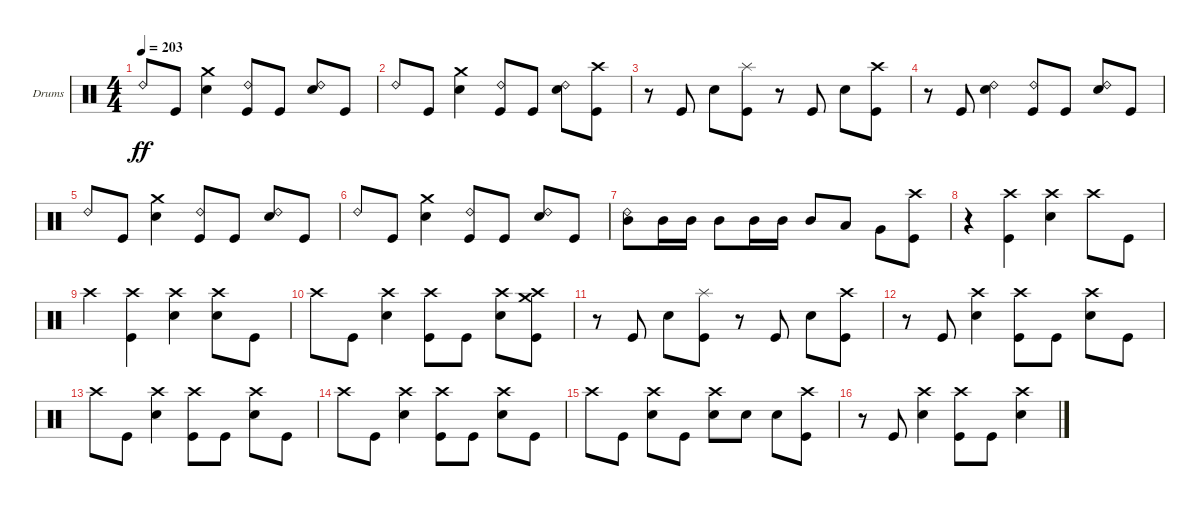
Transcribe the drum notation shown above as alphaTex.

\defaultSystemsLayout 4
\bracketExtendMode groupsimilarinstruments
\firstSystemTrackNameOrientation horizontal
\otherSystemsTrackNameOrientation horizontal
\track ("Brandon Barnes - Drums" "Drums") {instrument percussion}
\staff {score}
\articulation defaults
\ts (4 4)
\tempo 203
\clef neutral
\ks c "Ride (bell) 2".8{dy ff} "Kick (hit)".8
("Snare (hit) 2" "Crash medium (hit)").4 ("Ride (bell) 2" "Kick (hit)").8 "Kick (hit)".8 ("Snare (hit) 2" "Ride (bell) 2").8 "Kick (hit)".8 |
"Ride (bell) 2".8 "Kick (hit)".8 ("Snare (hit) 2" "Crash medium (hit)").4 ("Ride (bell) 2" "Kick (hit)").8 "Kick (hit)".8 ("Snare (hit) 2" "Ride (bell) 2").8 ("Kick (hit)" "Crash high (hit)").8 |
r.8 "Kick (hit)".8 "Snare (hit) 2".8 ("Kick (hit)" "Splash (hit)").8 r.8 "Kick (hit)".8 "Snare (hit) 2".8 ("Kick (hit)" "Crash high (hit)").8 |
r.8 "Kick (hit)".8 ("Snare (hit) 2" "Ride (bell) 2").4 ("Ride (bell) 2" "Kick (hit)").8 "Kick (hit)".8 ("Snare (hit) 2" "Ride (bell) 2").8 "Kick (hit)".8 |
"Ride (bell) 2".8 "Kick (hit)".8 ("Snare (hit) 2" "Crash medium (hit)").4 ("Ride (bell) 2" "Kick (hit)").8 "Kick (hit)".8 ("Snare (hit) 2" "Ride (bell) 2").8 "Kick (hit)".8 |
"Ride (bell) 2".8 "Kick (hit)".8 ("Snare (hit) 2" "Crash medium (hit)").4 ("Ride (bell) 2" "Kick (hit)").8 "Kick (hit)".8 ("Snare (hit) 2" "Ride (bell) 2").8 "Kick (hit)".8 |
("Mid Tom (hit)" "Ride (bell) 2").8 "Mid Tom (hit)".16 "Mid Tom (hit)".16 "Mid Tom (hit)".8 "Mid Tom (hit)".16 "Mid Tom (hit)".16 "Mid Tom (hit)".8 "Low Tom (hit)".8 "Very Low Tom (hit)".8 ("Kick (hit)" "Crash high (hit)").8 |
r.4 ("Crash high (hit)" "Kick (hit)").4 ("Snare (hit) 2" "Crash high (hit)").4 "Crash high (hit)".8 "Kick (hit)".8 |
"Crash high (hit)".4 ("Crash high (hit)" "Kick (hit)").4 ("Snare (hit) 2" "Crash high (hit)").4 ("Crash high (hit)" "Snare (hit) 2").8 "Kick (hit)".8 |
"Crash high (hit)".8 "Kick (hit)".8 ("Snare (hit) 2" "Crash high (hit)").4 ("Kick (hit)" "Crash high (hit)").8 "Kick (hit)".8 ("Snare (hit) 2" "Crash high (hit)").8 ("Kick (hit)" "Crash high (hit)" "Crash medium (hit)").8 |
r.8 "Kick (hit)".8 "Snare (hit) 2".8 ("Kick (hit)" "Splash (hit)").8 r.8 "Kick (hit)".8 "Snare (hit) 2".8 ("Kick (hit)" "Crash high (hit)").8 |
r.8 "Kick (hit)".8 ("Snare (hit) 2" "Crash high (hit)").4 ("Kick (hit)" "Crash high (hit)").8 "Kick (hit)".8 ("Snare (hit) 2" "Crash high (hit)").8 "Kick (hit)".8 |
"Crash high (hit)".8 "Kick (hit)".8 ("Snare (hit) 2" "Crash high (hit)").4 ("Kick (hit)" "Crash high (hit)").8 "Kick (hit)".8 ("Snare (hit) 2" "Crash high (hit)").8 "Kick (hit)".8 |
"Crash high (hit)".8 "Kick (hit)".8 ("Snare (hit) 2" "Crash high (hit)").4 ("Kick (hit)" "Crash high (hit)").8 "Kick (hit)".8 ("Snare (hit) 2" "Crash high (hit)").8 "Kick (hit)".8 |
"Crash high (hit)".8 "Kick (hit)".8 ("Snare (hit) 2" "Crash high (hit)").8 "Kick (hit)".8 ("Snare (hit) 2" "Crash high (hit)").8 "Snare (hit) 2".8 "Snare (hit) 2".8 ("Kick (hit)" "Crash high (hit)").8 |
r.8 "Kick (hit)".8 ("Snare (hit) 2" "Crash high (hit)").4 ("Kick (hit)" "Crash high (hit)").8 "Kick (hit)".8 ("Snare (hit) 2" "Crash high (hit)").4
